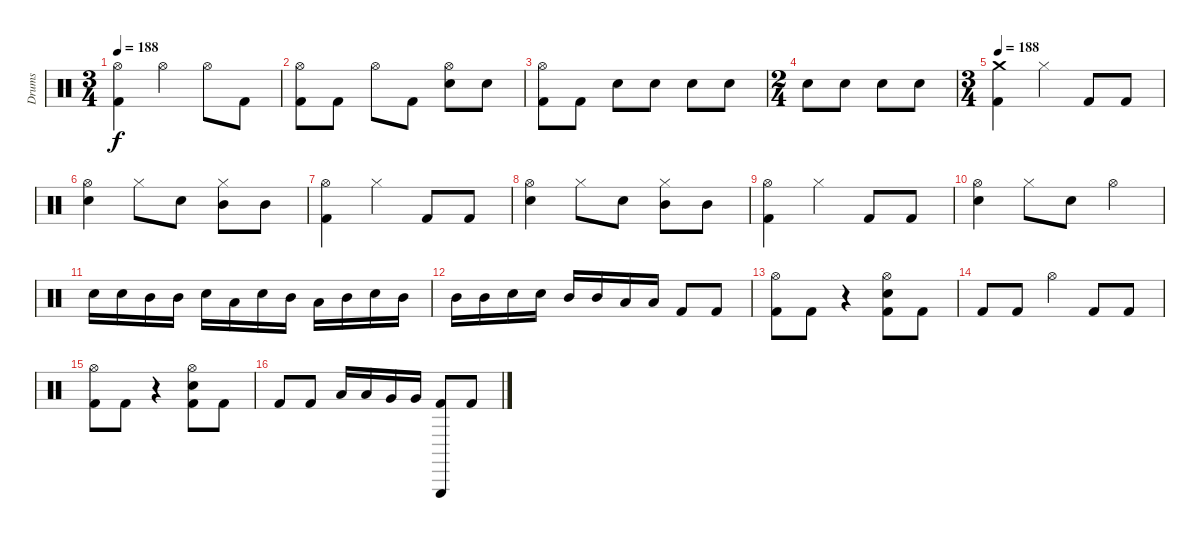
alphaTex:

\track ("Drums" "Drums") {instrument percussion}
\staff {score}
\articulation defaults
\ts (3 4)
\tempo 188
\clef neutral
\ks c
("Hi-Hat (open)" "Kick (hit) 2").4{dy f} "Hi-Hat (open)".4 "Hi-Hat (open)".8 "Kick (hit) 2".8 |
("Hi-Hat (open)" "Kick (hit) 2").8 "Kick (hit) 2".8 "Hi-Hat (open)".8 "Kick (hit) 2".8 ("Electric Snare (hit)" "Hi-Hat (open)").8 "Electric Snare (hit)".8 |
("Hi-Hat (open)" "Kick (hit) 2").8 "Kick (hit) 2".8 "Electric Snare (hit)".8 "Electric Snare (hit)".8 "Snare (hit) 2".8 "Electric Snare (hit)".8 |
\ts (2 4)
"Electric Snare (hit)".8 "Electric Snare (hit)".8 "Electric Snare (hit)".8 "Electric Snare (hit)".8 |
\ts (3 4)
\tempo 188
("Crash medium (hit)" "Kick (hit) 2").4 "Hi-Hat (closed)".4 "Kick (hit) 2".8 "Kick (hit) 2".8 |
("Electric Snare (hit)" "Hi-Hat (open)").4 "Hi-Hat (closed)".8 "Electric Snare (hit)".8 ("Hi-Hat (closed)" "Mid Tom (hit)").8 "Mid Tom (hit)".8 |
("Hi-Hat (open)" "Kick (hit) 2").4 "Hi-Hat (closed)".4 "Kick (hit) 2".8 "Kick (hit) 2".8 |
("Electric Snare (hit)" "Hi-Hat (open)").4 "Hi-Hat (closed)".8 "Electric Snare (hit)".8 ("Hi-Hat (closed)" "Mid Tom (hit)").8 "Mid Tom (hit)".8 |
("Hi-Hat (open)" "Kick (hit) 2").4 "Hi-Hat (closed)".4 "Kick (hit) 2".8 "Kick (hit) 2".8 |
("Electric Snare (hit)" "Hi-Hat (open)").4 "Hi-Hat (closed)".8 "Electric Snare (hit)".8 "Hi-Hat (open)".4 |
"Electric Snare (hit)".16 "Electric Snare (hit)".16 "Mid Tom (hit)".16 "Mid Tom (hit)".16 "Electric Snare (hit)".16 "Low Tom (hit)".16 "Electric Snare (hit)".16 "Mid Tom (hit)".16 "Low Tom (hit)".16 "Mid Tom (hit)".16 "Electric Snare (hit)".16 "Mid Tom (hit)".16 |
"Mid Tom (hit)".16 "Mid Tom (hit)".16 "Electric Snare (hit)".16 "Electric Snare (hit)".16 "Mid Tom (hit)".16 "Mid Tom (hit)".16 "Low Tom (hit)".16 "Low Tom (hit)".16 "Kick (hit) 2".8 "Kick (hit) 2".8 |
("Hi-Hat (open)" "Kick (hit) 2").8 "Kick (hit) 2".8 r.4 ("Electric Snare (hit)" "Hi-Hat (open)" "Kick (hit) 2").8 "Kick (hit) 2".8 |
"Kick (hit) 2".8 "Kick (hit) 2".8 "Hi-Hat (open)".4 "Kick (hit) 2".8 "Kick (hit) 2".8 |
("Hi-Hat (open)" "Kick (hit) 2").8 "Kick (hit) 2".8 r.4 ("Electric Snare (hit)" "Hi-Hat (open)" "Kick (hit) 2").8 "Kick (hit) 2".8 |
"Kick (hit) 2".8 "Kick (hit) 2".8 "Low Tom (hit)".16 "Low Tom (hit)".16 "Very Low Tom (hit)".16 "Very Low Tom (hit)".16 ("Triangle (hit)" "Kick (hit) 2").8 "Kick (hit) 2".8
